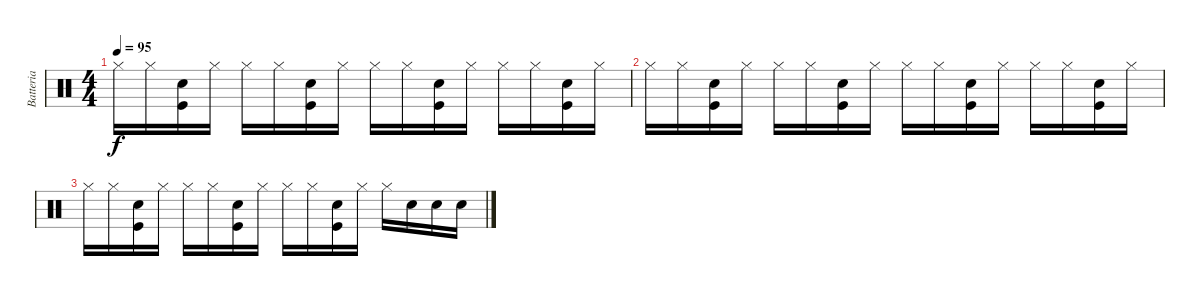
\track ("Batteria" "Batteria") {instrument percussion}
\staff {score}
\articulation defaults
\ts (4 4)
\tempo 95
\clef neutral
\ks c "Hi-Hat (closed)".16{dy f} "Hi-Hat (closed)".16
("Electric Snare (hit)" "Kick (hit)").16 "Hi-Hat (closed)".16 "Hi-Hat (closed)".16 "Hi-Hat (closed)".16 ("Electric Snare (hit)" "Kick (hit)").16 "Hi-Hat (closed)".16 "Hi-Hat (closed)".16 "Hi-Hat (closed)".16 ("Electric Snare (hit)" "Kick (hit)").16 "Hi-Hat (closed)".16 "Hi-Hat (closed)".16 "Hi-Hat (closed)".16 ("Electric Snare (hit)" "Kick (hit)").16 "Hi-Hat (closed)".16 |
"Hi-Hat (closed)".16 "Hi-Hat (closed)".16 ("Electric Snare (hit)" "Kick (hit)").16 "Hi-Hat (closed)".16 "Hi-Hat (closed)".16 "Hi-Hat (closed)".16 ("Electric Snare (hit)" "Kick (hit)").16 "Hi-Hat (closed)".16 "Hi-Hat (closed)".16 "Hi-Hat (closed)".16 ("Electric Snare (hit)" "Kick (hit)").16 "Hi-Hat (closed)".16 "Hi-Hat (closed)".16 "Hi-Hat (closed)".16 ("Electric Snare (hit)" "Kick (hit)").16 "Hi-Hat (closed)".16 |
"Hi-Hat (closed)".16 "Hi-Hat (closed)".16 ("Electric Snare (hit)" "Kick (hit)").16 "Hi-Hat (closed)".16 "Hi-Hat (closed)".16 "Hi-Hat (closed)".16 ("Electric Snare (hit)" "Kick (hit)").16 "Hi-Hat (closed)".16 "Hi-Hat (closed)".16 "Hi-Hat (closed)".16 ("Electric Snare (hit)" "Kick (hit)").16 "Hi-Hat (closed)".16 "Hi-Hat (closed)".16 "Electric Snare (hit)".16 "Electric Snare (hit)".16 "Electric Snare (hit)".16
